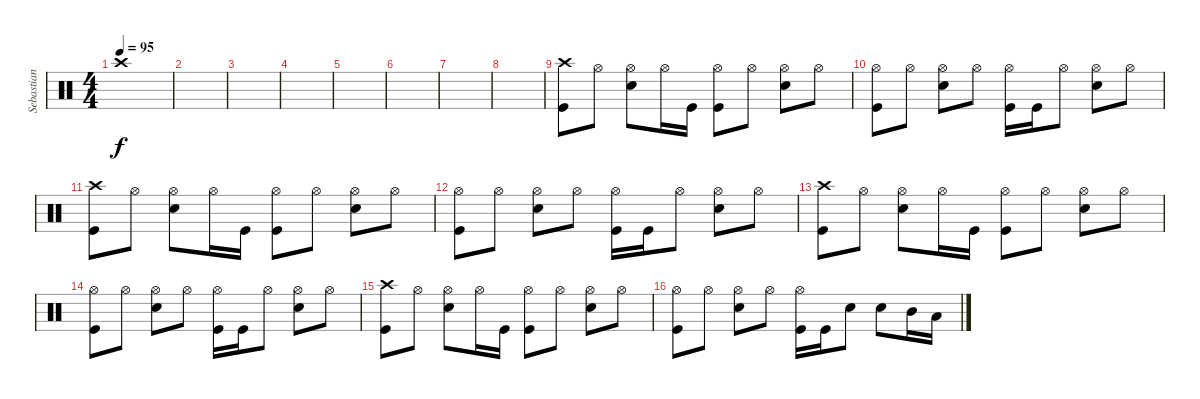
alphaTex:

\track ("Sebastian" "Sebastian") {instrument percussion}
\staff {score}
\articulation defaults
\ts (4 4)
\tempo 95
\clef neutral
\ks c "Crash high (hit)".1{dy f}
|
|
|
|
|
|
|
|
("Kick (hit)" "Crash high (hit)").8 "Hi-Hat (open)".8 ("Snare (hit) 2" "Hi-Hat (open)").8 "Hi-Hat (open)".16 "Kick (hit)".16 ("Kick (hit)" "Hi-Hat (open)").8 "Hi-Hat (open)".8 ("Snare (hit) 2" "Hi-Hat (open)").8 "Hi-Hat (open)".8 |
("Kick (hit)" "Hi-Hat (open)").8 "Hi-Hat (open)".8 ("Snare (hit) 2" "Hi-Hat (open)").8 "Hi-Hat (open)".8 ("Kick (hit)" "Hi-Hat (open)").16 "Kick (hit)".16 "Hi-Hat (open)".8 ("Snare (hit) 2" "Hi-Hat (open)").8 "Hi-Hat (open)".8 |
("Kick (hit)" "Crash high (hit)").8 "Hi-Hat (open)".8 ("Snare (hit) 2" "Hi-Hat (open)").8 "Hi-Hat (open)".16 "Kick (hit)".16 ("Kick (hit)" "Hi-Hat (open)").8 "Hi-Hat (open)".8 ("Snare (hit) 2" "Hi-Hat (open)").8 "Hi-Hat (open)".8 |
("Kick (hit)" "Hi-Hat (open)").8 "Hi-Hat (open)".8 ("Snare (hit) 2" "Hi-Hat (open)").8 "Hi-Hat (open)".8 ("Kick (hit)" "Hi-Hat (open)").16 "Kick (hit)".16 "Hi-Hat (open)".8 ("Snare (hit) 2" "Hi-Hat (open)").8 "Hi-Hat (open)".8 |
("Kick (hit)" "Crash high (hit)").8 "Hi-Hat (open)".8 ("Snare (hit) 2" "Hi-Hat (open)").8 "Hi-Hat (open)".16 "Kick (hit)".16 ("Kick (hit)" "Hi-Hat (open)").8 "Hi-Hat (open)".8 ("Snare (hit) 2" "Hi-Hat (open)").8 "Hi-Hat (open)".8 |
("Kick (hit)" "Hi-Hat (open)").8 "Hi-Hat (open)".8 ("Snare (hit) 2" "Hi-Hat (open)").8 "Hi-Hat (open)".8 ("Kick (hit)" "Hi-Hat (open)").16 "Kick (hit)".16 "Hi-Hat (open)".8 ("Snare (hit) 2" "Hi-Hat (open)").8 "Hi-Hat (open)".8 |
("Kick (hit)" "Crash high (hit)").8 "Hi-Hat (open)".8 ("Snare (hit) 2" "Hi-Hat (open)").8 "Hi-Hat (open)".16 "Kick (hit)".16 ("Kick (hit)" "Hi-Hat (open)").8 "Hi-Hat (open)".8 ("Snare (hit) 2" "Hi-Hat (open)").8 "Hi-Hat (open)".8 |
("Kick (hit)" "Hi-Hat (open)").8 "Hi-Hat (open)".8 ("Snare (hit) 2" "Hi-Hat (open)").8 "Hi-Hat (open)".8 ("Kick (hit)" "Hi-Hat (open)").16 "Kick (hit)".16 "Snare (hit) 2".8 "Snare (hit) 2".8 "Mid Tom (hit)".16 "Low Tom (hit)".16
